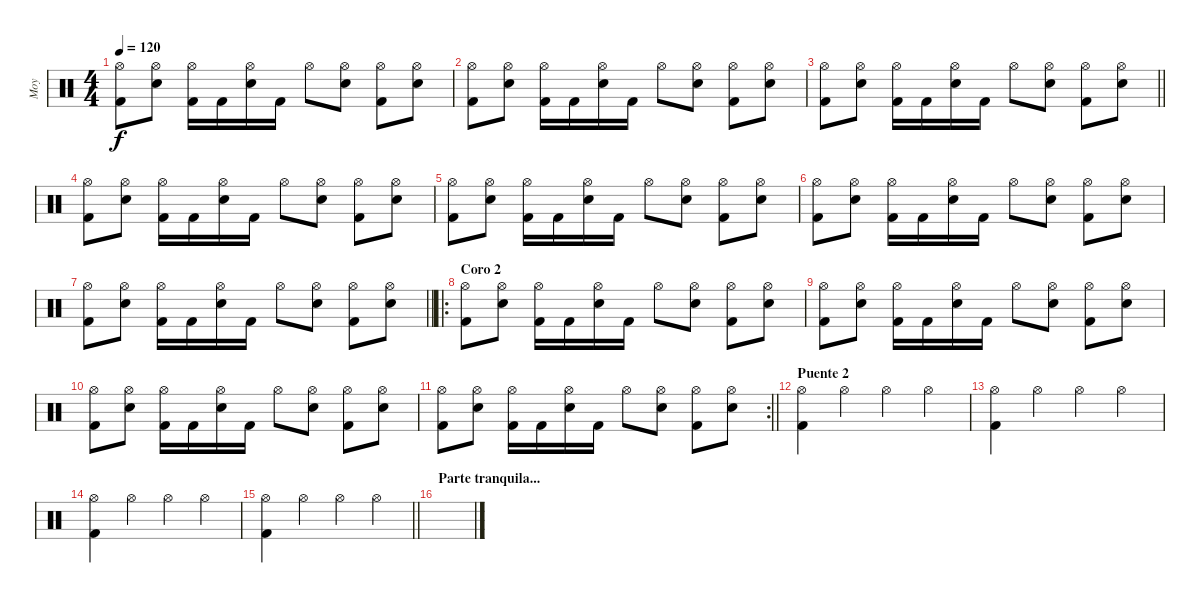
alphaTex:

\track ("Moy" "Moy") {instrument percussion}
\staff {score}
\articulation defaults
\ts (4 4)
\tempo 120
\clef neutral
\ks c
("Hi-Hat (open)" "Kick (hit) 2").8{dy f} ("Hi-Hat (open)" "Electric Snare (hit)").8 ("Hi-Hat (open)" "Kick (hit) 2").16 "Kick (hit) 2".16 ("Hi-Hat (open)" "Electric Snare (hit)").16 "Kick (hit) 2".16 "Hi-Hat (open)".8 ("Hi-Hat (open)" "Electric Snare (hit)").8 ("Hi-Hat (open)" "Kick (hit) 2").8 ("Hi-Hat (open)" "Electric Snare (hit)").8 |
("Hi-Hat (open)" "Kick (hit) 2").8 ("Hi-Hat (open)" "Electric Snare (hit)").8 ("Hi-Hat (open)" "Kick (hit) 2").16 "Kick (hit) 2".16 ("Hi-Hat (open)" "Electric Snare (hit)").16 "Kick (hit) 2".16 "Hi-Hat (open)".8 ("Hi-Hat (open)" "Electric Snare (hit)").8 ("Hi-Hat (open)" "Kick (hit) 2").8 ("Hi-Hat (open)" "Electric Snare (hit)").8 |
\barLineRight lightlight
("Hi-Hat (open)" "Kick (hit) 2").8 ("Hi-Hat (open)" "Electric Snare (hit)").8 ("Hi-Hat (open)" "Kick (hit) 2").16 "Kick (hit) 2".16 ("Hi-Hat (open)" "Electric Snare (hit)").16 "Kick (hit) 2".16 "Hi-Hat (open)".8 ("Hi-Hat (open)" "Electric Snare (hit)").8 ("Hi-Hat (open)" "Kick (hit) 2").8 ("Hi-Hat (open)" "Electric Snare (hit)").8 |
("Hi-Hat (open)" "Kick (hit) 2").8 ("Hi-Hat (open)" "Electric Snare (hit)").8 ("Hi-Hat (open)" "Kick (hit) 2").16 "Kick (hit) 2".16 ("Hi-Hat (open)" "Electric Snare (hit)").16 "Kick (hit) 2".16 "Hi-Hat (open)".8 ("Hi-Hat (open)" "Electric Snare (hit)").8 ("Hi-Hat (open)" "Kick (hit) 2").8 ("Hi-Hat (open)" "Electric Snare (hit)").8 |
("Hi-Hat (open)" "Kick (hit) 2").8 ("Hi-Hat (open)" "Electric Snare (hit)").8 ("Hi-Hat (open)" "Kick (hit) 2").16 "Kick (hit) 2".16 ("Hi-Hat (open)" "Electric Snare (hit)").16 "Kick (hit) 2".16 "Hi-Hat (open)".8 ("Hi-Hat (open)" "Electric Snare (hit)").8 ("Hi-Hat (open)" "Kick (hit) 2").8 ("Hi-Hat (open)" "Electric Snare (hit)").8 |
("Hi-Hat (open)" "Kick (hit) 2").8 ("Hi-Hat (open)" "Electric Snare (hit)").8 ("Hi-Hat (open)" "Kick (hit) 2").16 "Kick (hit) 2".16 ("Hi-Hat (open)" "Electric Snare (hit)").16 "Kick (hit) 2".16 "Hi-Hat (open)".8 ("Hi-Hat (open)" "Electric Snare (hit)").8 ("Hi-Hat (open)" "Kick (hit) 2").8 ("Hi-Hat (open)" "Electric Snare (hit)").8 |
\barLineRight lightlight
("Hi-Hat (open)" "Kick (hit) 2").8 ("Hi-Hat (open)" "Electric Snare (hit)").8 ("Hi-Hat (open)" "Kick (hit) 2").16 "Kick (hit) 2".16 ("Hi-Hat (open)" "Electric Snare (hit)").16 "Kick (hit) 2".16 "Hi-Hat (open)".8 ("Hi-Hat (open)" "Electric Snare (hit)").8 ("Hi-Hat (open)" "Kick (hit) 2").8 ("Hi-Hat (open)" "Electric Snare (hit)").8 |
\ro
\section ("" "Coro 2")
("Hi-Hat (open)" "Kick (hit) 2").8 ("Hi-Hat (open)" "Electric Snare (hit)").8 ("Hi-Hat (open)" "Kick (hit) 2").16 "Kick (hit) 2".16 ("Hi-Hat (open)" "Electric Snare (hit)").16 "Kick (hit) 2".16 "Hi-Hat (open)".8 ("Hi-Hat (open)" "Electric Snare (hit)").8 ("Hi-Hat (open)" "Kick (hit) 2").8 ("Hi-Hat (open)" "Electric Snare (hit)").8 |
("Hi-Hat (open)" "Kick (hit) 2").8 ("Hi-Hat (open)" "Electric Snare (hit)").8 ("Hi-Hat (open)" "Kick (hit) 2").16 "Kick (hit) 2".16 ("Hi-Hat (open)" "Electric Snare (hit)").16 "Kick (hit) 2".16 "Hi-Hat (open)".8 ("Hi-Hat (open)" "Electric Snare (hit)").8 ("Hi-Hat (open)" "Kick (hit) 2").8 ("Hi-Hat (open)" "Electric Snare (hit)").8 |
("Hi-Hat (open)" "Kick (hit) 2").8 ("Hi-Hat (open)" "Electric Snare (hit)").8 ("Hi-Hat (open)" "Kick (hit) 2").16 "Kick (hit) 2".16 ("Hi-Hat (open)" "Electric Snare (hit)").16 "Kick (hit) 2".16 "Hi-Hat (open)".8 ("Hi-Hat (open)" "Electric Snare (hit)").8 ("Hi-Hat (open)" "Kick (hit) 2").8 ("Hi-Hat (open)" "Electric Snare (hit)").8 |
\rc 2
\barLineRight lightlight
("Hi-Hat (open)" "Kick (hit) 2").8 ("Hi-Hat (open)" "Electric Snare (hit)").8 ("Hi-Hat (open)" "Kick (hit) 2").16 "Kick (hit) 2".16 ("Hi-Hat (open)" "Electric Snare (hit)").16 "Kick (hit) 2".16 "Hi-Hat (open)".8 ("Hi-Hat (open)" "Electric Snare (hit)").8 ("Hi-Hat (open)" "Kick (hit) 2").8 ("Hi-Hat (open)" "Electric Snare (hit)").8 |
\section ("" "Puente 2")
("Hi-Hat (open)" "Kick (hit) 2").4 "Hi-Hat (open)".4 "Hi-Hat (open)".4 "Hi-Hat (open)".4 |
("Hi-Hat (open)" "Kick (hit) 2").4 "Hi-Hat (open)".4 "Hi-Hat (open)".4 "Hi-Hat (open)".4 |
("Hi-Hat (open)" "Kick (hit) 2").4 "Hi-Hat (open)".4 "Hi-Hat (open)".4 "Hi-Hat (open)".4 |
\barLineRight lightlight
("Hi-Hat (open)" "Kick (hit) 2").4 "Hi-Hat (open)".4 "Hi-Hat (open)".4 "Hi-Hat (open)".4 |
\section ("" "Parte tranquila...")
